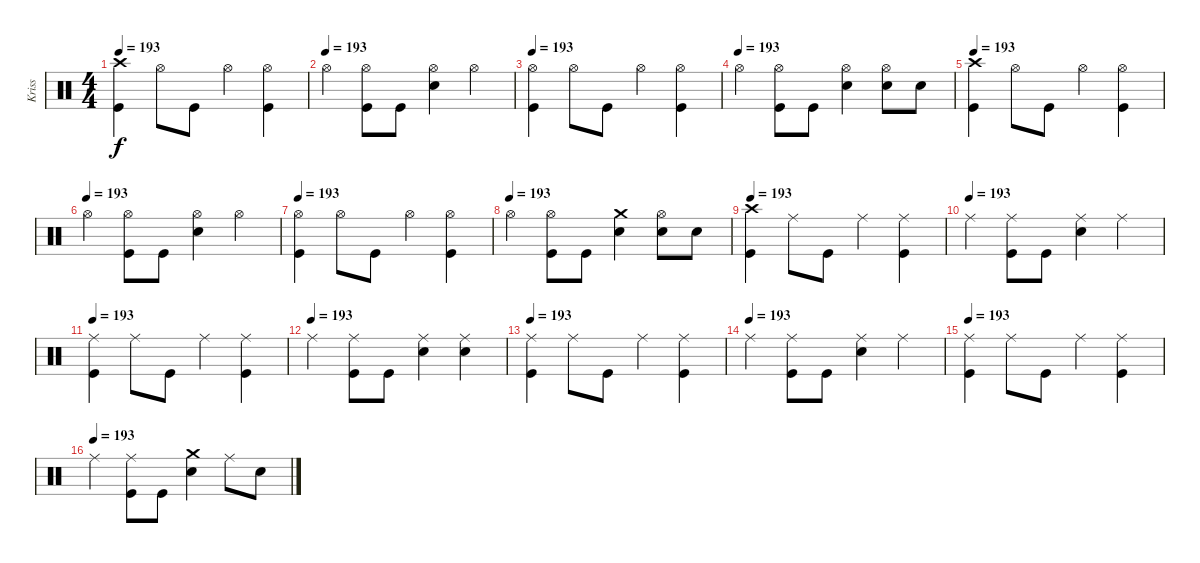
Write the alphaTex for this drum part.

\track ("Kriss" "Kriss") {instrument percussion}
\staff {score}
\articulation defaults
\ts (4 4)
\tempo 193
\clef neutral
\ks c
("Crash high (hit)" "Kick (hit)").4{dy f} "Hi-Hat (open)".8 "Kick (hit)".8 "Hi-Hat (open)".4 ("Hi-Hat (open)" "Kick (hit)").4 |
\tempo (193)
"Hi-Hat (open)".4 ("Hi-Hat (open)" "Kick (hit)").8 "Kick (hit)".8 ("Hi-Hat (open)" "Snare (hit) 2").4 "Hi-Hat (open)".4 |
\tempo 193
("Hi-Hat (open)" "Kick (hit)").4 "Hi-Hat (open)".8 "Kick (hit)".8 "Hi-Hat (open)".4 ("Hi-Hat (open)" "Kick (hit)").4 |
\tempo (193)
"Hi-Hat (open)".4 ("Hi-Hat (open)" "Kick (hit)").8 "Kick (hit)".8 ("Hi-Hat (open)" "Snare (hit) 2").4 ("Hi-Hat (open)" "Snare (hit) 2").8 "Snare (hit) 2".8 |
\tempo 193
("Crash high (hit)" "Kick (hit)").4 "Hi-Hat (open)".8 "Kick (hit)".8 "Hi-Hat (open)".4 ("Hi-Hat (open)" "Kick (hit)").4 |
\tempo (193)
"Hi-Hat (open)".4 ("Hi-Hat (open)" "Kick (hit)").8 "Kick (hit)".8 ("Hi-Hat (open)" "Snare (hit) 2").4 "Hi-Hat (open)".4 |
\tempo 193
("Hi-Hat (open)" "Kick (hit)").4 "Hi-Hat (open)".8 "Kick (hit)".8 "Hi-Hat (open)".4 ("Hi-Hat (open)" "Kick (hit)").4 |
\tempo (193)
"Hi-Hat (open)".4 ("Hi-Hat (open)" "Kick (hit)").8 "Kick (hit)".8 ("Crash medium (hit)" "Snare (hit) 2").4 ("Hi-Hat (open)" "Snare (hit) 2").8 "Snare (hit) 2".8 |
\tempo 193
("Crash high (hit)" "Kick (hit)").4 "Ride (middle)".8 "Kick (hit)".8 "Ride (middle)".4 ("Ride (middle)" "Kick (hit)").4 |
\tempo (193)
"Ride (middle)".4 ("Ride (middle)" "Kick (hit)").8 "Kick (hit)".8 ("Ride (middle)" "Snare (hit) 2").4 "Ride (middle)".4 |
\tempo 193
("Ride (middle)" "Kick (hit)").4 "Ride (middle)".8 "Kick (hit)".8 "Ride (middle)".4 ("Ride (middle)" "Kick (hit)").4 |
\tempo (193)
"Ride (middle)".4 ("Ride (middle)" "Kick (hit)").8 "Kick (hit)".8 ("Ride (middle)" "Snare (hit) 2").4 ("Ride (middle)" "Snare (hit) 2").4 |
\tempo 193
("Ride (middle)" "Kick (hit)").4 "Ride (middle)".8 "Kick (hit)".8 "Ride (middle)".4 ("Ride (middle)" "Kick (hit)").4 |
\tempo (193)
"Ride (middle)".4 ("Ride (middle)" "Kick (hit)").8 "Kick (hit)".8 ("Ride (middle)" "Snare (hit) 2").4 "Ride (middle)".4 |
\tempo 193
("Ride (middle)" "Kick (hit)").4 "Ride (middle)".8 "Kick (hit)".8 "Ride (middle)".4 ("Ride (middle)" "Kick (hit)").4 |
\tempo (193)
"Ride (middle)".4 ("Ride (middle)" "Kick (hit)").8 "Kick (hit)".8 ("Crash medium (hit)" "Snare (hit) 2").4 "Ride (middle)".8 "Snare (hit) 2".8
